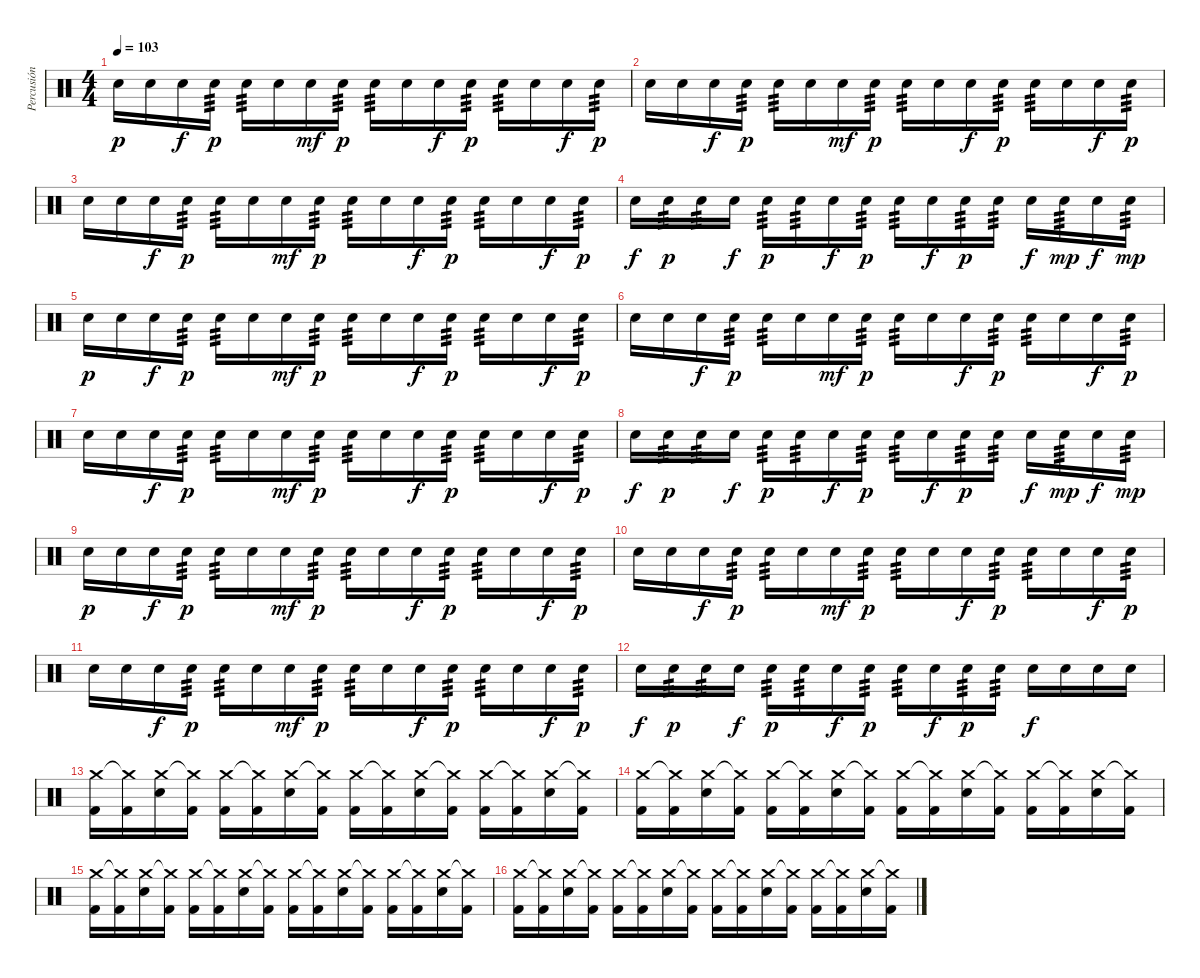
\track ("Percusión" "Percusión") {instrument percussion}
\staff {score}
\articulation defaults
\ts (4 4)
\tempo 103
\clef neutral
\ks c "Electric Snare (hit)".16{dy p} "Electric Snare (hit)".16 "Electric Snare (hit)".16{dy f} "Electric Snare (hit)".16{tp 3 dy p} "Electric Snare (hit)".16{tp 3} "Electric Snare (hit)".16 "Electric Snare (hit)".16{dy mf} "Electric Snare (hit)".16{tp 3 dy p} "Electric Snare (hit)".16{tp 3} "Electric Snare (hit)".16 "Electric Snare (hit)".16{dy f} "Electric Snare (hit)".16{tp 3 dy p} "Electric Snare (hit)".16{tp 3} "Electric Snare (hit)".16 "Electric Snare (hit)".16{dy f} "Electric Snare (hit)".16{tp 3 dy p}
|
"Electric Snare (hit)".16 "Electric Snare (hit)".16 "Electric Snare (hit)".16{dy f} "Electric Snare (hit)".16{tp 3 dy p} "Electric Snare (hit)".16{tp 3} "Electric Snare (hit)".16 "Electric Snare (hit)".16{dy mf} "Electric Snare (hit)".16{tp 3 dy p} "Electric Snare (hit)".16{tp 3} "Electric Snare (hit)".16 "Electric Snare (hit)".16{dy f} "Electric Snare (hit)".16{tp 3 dy p} "Electric Snare (hit)".16{tp 3} "Electric Snare (hit)".16 "Electric Snare (hit)".16{dy f} "Electric Snare (hit)".16{tp 3 dy p} |
"Electric Snare (hit)".16 "Electric Snare (hit)".16 "Electric Snare (hit)".16{dy f} "Electric Snare (hit)".16{tp 3 dy p} "Electric Snare (hit)".16{tp 3} "Electric Snare (hit)".16 "Electric Snare (hit)".16{dy mf} "Electric Snare (hit)".16{tp 3 dy p} "Electric Snare (hit)".16{tp 3} "Electric Snare (hit)".16 "Electric Snare (hit)".16{dy f} "Electric Snare (hit)".16{tp 3 dy p} "Electric Snare (hit)".16{tp 3} "Electric Snare (hit)".16 "Electric Snare (hit)".16{dy f} "Electric Snare (hit)".16{tp 3 dy p} |
"Electric Snare (hit)".16{dy f} "Electric Snare (hit)".16{tp 3 dy p} "Electric Snare (hit)".16{tp 3} "Electric Snare (hit)".16{dy f} "Electric Snare (hit)".16{tp 3 dy p} "Electric Snare (hit)".16{tp 3} "Electric Snare (hit)".16{dy f} "Electric Snare (hit)".16{tp 3 dy p} "Electric Snare (hit)".16{tp 3} "Electric Snare (hit)".16{dy f} "Electric Snare (hit)".16{tp 3 dy p} "Electric Snare (hit)".16{tp 3} "Electric Snare (hit)".16{dy f} "Electric Snare (hit)".16{tp 3 dy mp} "Electric Snare (hit)".16{dy f} "Electric Snare (hit)".16{tp 3 dy mp} |
"Electric Snare (hit)".16{dy p} "Electric Snare (hit)".16 "Electric Snare (hit)".16{dy f} "Electric Snare (hit)".16{tp 3 dy p} "Electric Snare (hit)".16{tp 3} "Electric Snare (hit)".16 "Electric Snare (hit)".16{dy mf} "Electric Snare (hit)".16{tp 3 dy p} "Electric Snare (hit)".16{tp 3} "Electric Snare (hit)".16 "Electric Snare (hit)".16{dy f} "Electric Snare (hit)".16{tp 3 dy p} "Electric Snare (hit)".16{tp 3} "Electric Snare (hit)".16 "Electric Snare (hit)".16{dy f} "Electric Snare (hit)".16{tp 3 dy p} |
"Electric Snare (hit)".16 "Electric Snare (hit)".16 "Electric Snare (hit)".16{dy f} "Electric Snare (hit)".16{tp 3 dy p} "Electric Snare (hit)".16{tp 3} "Electric Snare (hit)".16 "Electric Snare (hit)".16{dy mf} "Electric Snare (hit)".16{tp 3 dy p} "Electric Snare (hit)".16{tp 3} "Electric Snare (hit)".16 "Electric Snare (hit)".16{dy f} "Electric Snare (hit)".16{tp 3 dy p} "Electric Snare (hit)".16{tp 3} "Electric Snare (hit)".16 "Electric Snare (hit)".16{dy f} "Electric Snare (hit)".16{tp 3 dy p} |
"Electric Snare (hit)".16 "Electric Snare (hit)".16 "Electric Snare (hit)".16{dy f} "Electric Snare (hit)".16{tp 3 dy p} "Electric Snare (hit)".16{tp 3} "Electric Snare (hit)".16 "Electric Snare (hit)".16{dy mf} "Electric Snare (hit)".16{tp 3 dy p} "Electric Snare (hit)".16{tp 3} "Electric Snare (hit)".16 "Electric Snare (hit)".16{dy f} "Electric Snare (hit)".16{tp 3 dy p} "Electric Snare (hit)".16{tp 3} "Electric Snare (hit)".16 "Electric Snare (hit)".16{dy f} "Electric Snare (hit)".16{tp 3 dy p} |
"Electric Snare (hit)".16{dy f} "Electric Snare (hit)".16{tp 3 dy p} "Electric Snare (hit)".16{tp 3} "Electric Snare (hit)".16{dy f} "Electric Snare (hit)".16{tp 3 dy p} "Electric Snare (hit)".16{tp 3} "Electric Snare (hit)".16{dy f} "Electric Snare (hit)".16{tp 3 dy p} "Electric Snare (hit)".16{tp 3} "Electric Snare (hit)".16{dy f} "Electric Snare (hit)".16{tp 3 dy p} "Electric Snare (hit)".16{tp 3} "Electric Snare (hit)".16{dy f} "Electric Snare (hit)".16{tp 3 dy mp} "Electric Snare (hit)".16{dy f} "Electric Snare (hit)".16{tp 3 dy mp} |
"Electric Snare (hit)".16{dy p} "Electric Snare (hit)".16 "Electric Snare (hit)".16{dy f} "Electric Snare (hit)".16{tp 3 dy p} "Electric Snare (hit)".16{tp 3} "Electric Snare (hit)".16 "Electric Snare (hit)".16{dy mf} "Electric Snare (hit)".16{tp 3 dy p} "Electric Snare (hit)".16{tp 3} "Electric Snare (hit)".16 "Electric Snare (hit)".16{dy f} "Electric Snare (hit)".16{tp 3 dy p} "Electric Snare (hit)".16{tp 3} "Electric Snare (hit)".16 "Electric Snare (hit)".16{dy f} "Electric Snare (hit)".16{tp 3 dy p} |
"Electric Snare (hit)".16 "Electric Snare (hit)".16 "Electric Snare (hit)".16{dy f} "Electric Snare (hit)".16{tp 3 dy p} "Electric Snare (hit)".16{tp 3} "Electric Snare (hit)".16 "Electric Snare (hit)".16{dy mf} "Electric Snare (hit)".16{tp 3 dy p} "Electric Snare (hit)".16{tp 3} "Electric Snare (hit)".16 "Electric Snare (hit)".16{dy f} "Electric Snare (hit)".16{tp 3 dy p} "Electric Snare (hit)".16{tp 3} "Electric Snare (hit)".16 "Electric Snare (hit)".16{dy f} "Electric Snare (hit)".16{tp 3 dy p} |
"Electric Snare (hit)".16 "Electric Snare (hit)".16 "Electric Snare (hit)".16{dy f} "Electric Snare (hit)".16{tp 3 dy p} "Electric Snare (hit)".16{tp 3} "Electric Snare (hit)".16 "Electric Snare (hit)".16{dy mf} "Electric Snare (hit)".16{tp 3 dy p} "Electric Snare (hit)".16{tp 3} "Electric Snare (hit)".16 "Electric Snare (hit)".16{dy f} "Electric Snare (hit)".16{tp 3 dy p} "Electric Snare (hit)".16{tp 3} "Electric Snare (hit)".16 "Electric Snare (hit)".16{dy f} "Electric Snare (hit)".16{tp 3 dy p} |
"Electric Snare (hit)".16{dy f} "Electric Snare (hit)".16{tp 3 dy p} "Electric Snare (hit)".16{tp 3} "Electric Snare (hit)".16{dy f} "Electric Snare (hit)".16{tp 3 dy p} "Electric Snare (hit)".16{tp 3} "Electric Snare (hit)".16{dy f} "Electric Snare (hit)".16{tp 3 dy p} "Electric Snare (hit)".16{tp 3} "Electric Snare (hit)".16{dy f} "Electric Snare (hit)".16{tp 3 dy p} "Electric Snare (hit)".16{tp 3} "Electric Snare (hit)".16{dy f} "Electric Snare (hit)".16 "Electric Snare (hit)".16 "Electric Snare (hit)".16 |
("Kick (hit) 2" "Crash medium (hit)").16 ("Kick (hit) 2" "Crash medium (hit)"{t}).16 ("Electric Snare (hit)" "Crash medium (hit)").16 ("Kick (hit) 2" "Crash medium (hit)"{t}).16 ("Kick (hit) 2" "Crash medium (hit)").16 ("Kick (hit) 2" "Crash medium (hit)"{t}).16 ("Electric Snare (hit)" "Crash medium (hit)").16 ("Kick (hit) 2" "Crash medium (hit)"{t}).16 ("Kick (hit) 2" "Crash medium (hit)").16 ("Kick (hit) 2" "Crash medium (hit)"{t}).16 ("Electric Snare (hit)" "Crash medium (hit)").16 ("Kick (hit) 2" "Crash medium (hit)"{t}).16 ("Kick (hit) 2" "Crash medium (hit)").16 ("Kick (hit) 2" "Crash medium (hit)"{t}).16 ("Electric Snare (hit)" "Crash medium (hit)").16 ("Kick (hit) 2" "Crash medium (hit)"{t}).16 |
("Kick (hit) 2" "Crash medium (hit)").16 ("Kick (hit) 2" "Crash medium (hit)"{t}).16 ("Electric Snare (hit)" "Crash medium (hit)").16 ("Kick (hit) 2" "Crash medium (hit)"{t}).16 ("Kick (hit) 2" "Crash medium (hit)").16 ("Kick (hit) 2" "Crash medium (hit)"{t}).16 ("Electric Snare (hit)" "Crash medium (hit)").16 ("Kick (hit) 2" "Crash medium (hit)"{t}).16 ("Kick (hit) 2" "Crash medium (hit)").16 ("Kick (hit) 2" "Crash medium (hit)"{t}).16 ("Electric Snare (hit)" "Crash medium (hit)").16 ("Kick (hit) 2" "Crash medium (hit)"{t}).16 ("Kick (hit) 2" "Crash medium (hit)").16 ("Kick (hit) 2" "Crash medium (hit)"{t}).16 ("Electric Snare (hit)" "Crash medium (hit)").16 ("Kick (hit) 2" "Crash medium (hit)"{t}).16 |
("Kick (hit) 2" "Crash medium (hit)").16 ("Kick (hit) 2" "Crash medium (hit)"{t}).16 ("Electric Snare (hit)" "Crash medium (hit)").16 ("Kick (hit) 2" "Crash medium (hit)"{t}).16 ("Kick (hit) 2" "Crash medium (hit)").16 ("Kick (hit) 2" "Crash medium (hit)"{t}).16 ("Electric Snare (hit)" "Crash medium (hit)").16 ("Kick (hit) 2" "Crash medium (hit)"{t}).16 ("Kick (hit) 2" "Crash medium (hit)").16 ("Kick (hit) 2" "Crash medium (hit)"{t}).16 ("Electric Snare (hit)" "Crash medium (hit)").16 ("Kick (hit) 2" "Crash medium (hit)"{t}).16 ("Kick (hit) 2" "Crash medium (hit)").16 ("Kick (hit) 2" "Crash medium (hit)"{t}).16 ("Electric Snare (hit)" "Crash medium (hit)").16 ("Kick (hit) 2" "Crash medium (hit)"{t}).16 |
("Kick (hit) 2" "Crash medium (hit)").16 ("Kick (hit) 2" "Crash medium (hit)"{t}).16 ("Electric Snare (hit)" "Crash medium (hit)").16 ("Kick (hit) 2" "Crash medium (hit)"{t}).16 ("Kick (hit) 2" "Crash medium (hit)").16 ("Kick (hit) 2" "Crash medium (hit)"{t}).16 ("Electric Snare (hit)" "Crash medium (hit)").16 ("Kick (hit) 2" "Crash medium (hit)"{t}).16 ("Kick (hit) 2" "Crash medium (hit)").16 ("Kick (hit) 2" "Crash medium (hit)"{t}).16 ("Electric Snare (hit)" "Crash medium (hit)").16 ("Kick (hit) 2" "Crash medium (hit)"{t}).16 ("Kick (hit) 2" "Crash medium (hit)").16 ("Kick (hit) 2" "Crash medium (hit)"{t}).16 ("Electric Snare (hit)" "Crash medium (hit)").16 ("Kick (hit) 2" "Crash medium (hit)"{t}).16
